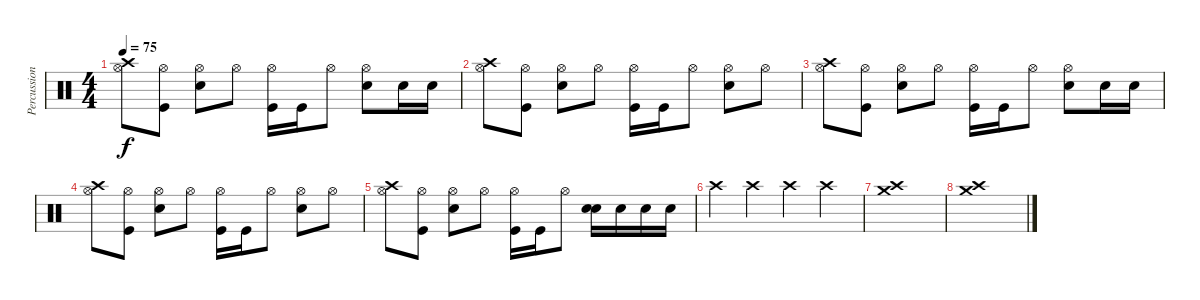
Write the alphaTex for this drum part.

\track ("Percussion" "Percussion") {instrument percussion}
\staff {score}
\articulation defaults
\ts (4 4)
\tempo 75
\clef neutral
\ks c
("Crash high (hit)" "Hi-Hat (open)").8{dy f} ("Kick (hit)" "Hi-Hat (open)").8 ("Snare (hit) 2" "Hi-Hat (open)").8 "Hi-Hat (open)".8 ("Kick (hit)" "Hi-Hat (open)").16 "Kick (hit)".16 "Hi-Hat (open)".8 ("Snare (hit) 2" "Hi-Hat (open)").8 "Snare (hit) 2".16 "Snare (hit) 2".16 |
("Crash high (hit)" "Hi-Hat (open)").8 ("Kick (hit)" "Hi-Hat (open)").8 ("Snare (hit) 2" "Hi-Hat (open)").8 "Hi-Hat (open)".8 ("Kick (hit)" "Hi-Hat (open)").16 "Kick (hit)".16 "Hi-Hat (open)".8 ("Snare (hit) 2" "Hi-Hat (open)").8 "Hi-Hat (open)".8 |
("Crash high (hit)" "Hi-Hat (open)").8 ("Kick (hit)" "Hi-Hat (open)").8 ("Snare (hit) 2" "Hi-Hat (open)").8 "Hi-Hat (open)".8 ("Kick (hit)" "Hi-Hat (open)").16 "Kick (hit)".16 "Hi-Hat (open)".8 ("Snare (hit) 2" "Hi-Hat (open)").8 "Snare (hit) 2".16 "Snare (hit) 2".16 |
("Crash high (hit)" "Hi-Hat (open)").8 ("Kick (hit)" "Hi-Hat (open)").8 ("Snare (hit) 2" "Hi-Hat (open)").8 "Hi-Hat (open)".8 ("Kick (hit)" "Hi-Hat (open)").16 "Kick (hit)".16 "Hi-Hat (open)".8 ("Snare (hit) 2" "Hi-Hat (open)").8 "Hi-Hat (open)".8 |
("Crash high (hit)" "Hi-Hat (open)").8 ("Kick (hit)" "Hi-Hat (open)").8 ("Snare (hit) 2" "Hi-Hat (open)").8 "Hi-Hat (open)".8 ("Kick (hit)" "Hi-Hat (open)").16 "Kick (hit)".16 "Hi-Hat (open)".8 ("Snare (hit) 2" "Snare (hit) 2").16 "Snare (hit) 2".16 "Snare (hit) 2".16 "Snare (hit) 2".16 |
"Crash high (hit)".4 "Crash high (hit)".4 "Crash high (hit)".4 "Crash high (hit)".4 |
("Crash medium (hit)" "Crash high (hit)").1 |
("Crash medium (hit)" "Crash high (hit)").1
